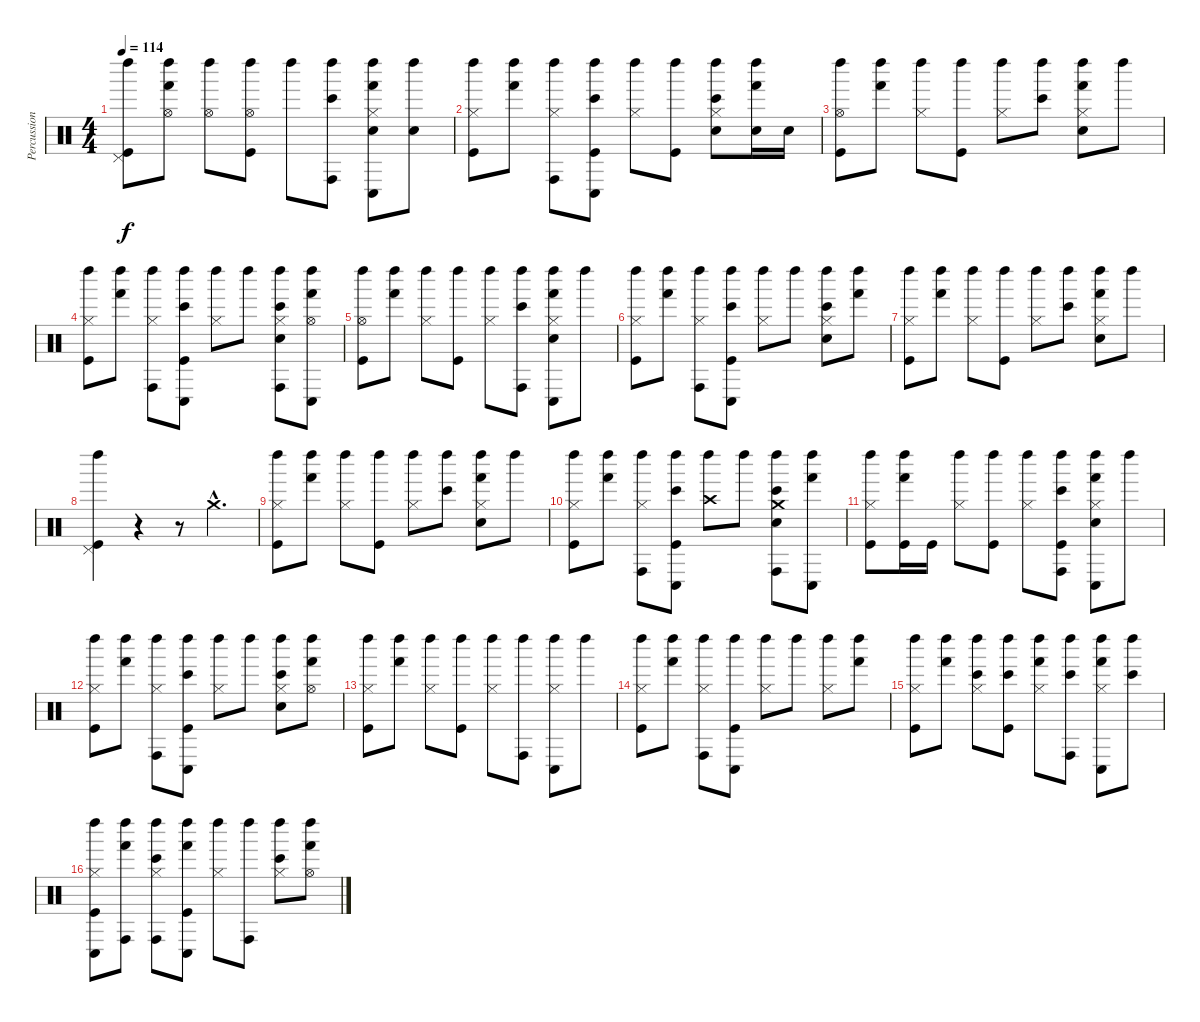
\track ("Percussion" "Percussion") {instrument percussion}
\staff {score}
\articulation defaults
\ts (4 4)
\tempo 114
\clef neutral
\ks c
("Left Maraca (hit)" "Pedal Hi-Hat (hit)" "Kick (hit)").8{dy f} ("Left Maraca (hit)" "Hand (hit)" "Hi-Hat (open)").8 ("Left Maraca (hit)" "Hi-Hat (open)").8 ("Left Maraca (hit)" "Hi-Hat (open)" "Kick (hit)").8 "Left Maraca (hit)".8 ("Left Maraca (hit)" "Conga high (hit)" "Bongo High (hit)").8 ("Left Maraca (hit)" "Conga low (hit)" "Hand (hit)" "Hi-Hat (closed)" "Snare (hit) 2").8 ("Left Maraca (hit)" "Snare (hit) 2").8 |
("Left Maraca (hit)" "Hi-Hat (closed)" "Kick (hit)").8 ("Left Maraca (hit)" "Hand (hit)").8 ("Left Maraca (hit)" "Conga high (hit)" "Hi-Hat (closed)").8 ("Left Maraca (hit)" "Conga low (hit)" "Bongo High (hit)" "Kick (hit)").8 ("Left Maraca (hit)" "Hi-Hat (closed)").8 ("Left Maraca (hit)" "Kick (hit)").8 ("Left Maraca (hit)" "Bongo High (hit)" "Hi-Hat (closed)" "Snare (hit) 2").8 ("Left Maraca (hit)" "Hand (hit)" "Snare (hit) 2").16 "Snare (hit) 2".16 |
("Left Maraca (hit)" "Hi-Hat (open)" "Kick (hit)").8 ("Left Maraca (hit)" "Hand (hit)").8 ("Left Maraca (hit)" "Hi-Hat (closed)").8 ("Left Maraca (hit)" "Kick (hit)").8 ("Left Maraca (hit)" "Hi-Hat (closed)").8 ("Left Maraca (hit)" "Bongo High (hit)").8 ("Left Maraca (hit)" "Hand (hit)" "Hi-Hat (closed)" "Snare (hit) 2").8 "Left Maraca (hit)".8 |
("Left Maraca (hit)" "Hi-Hat (closed)" "Kick (hit)").8 ("Left Maraca (hit)" "Hand (hit)").8 ("Left Maraca (hit)" "Conga high (hit)" "Hi-Hat (closed)").8 ("Left Maraca (hit)" "Conga low (hit)" "Bongo High (hit)" "Kick (hit)").8 ("Left Maraca (hit)" "Hi-Hat (closed)").8 "Left Maraca (hit)".8 ("Left Maraca (hit)" "Conga high (hit)" "Bongo High (hit)" "Hi-Hat (closed)" "Snare (hit) 2").8 ("Left Maraca (hit)" "Conga low (hit)" "Hand (hit)" "Hi-Hat (open)").8 |
("Left Maraca (hit)" "Hi-Hat (open)" "Kick (hit)").8 ("Left Maraca (hit)" "Hand (hit)").8 ("Left Maraca (hit)" "Hi-Hat (closed)").8 ("Left Maraca (hit)" "Kick (hit)").8 ("Left Maraca (hit)" "Hi-Hat (closed)").8 ("Left Maraca (hit)" "Conga high (hit)" "Bongo High (hit)").8 ("Left Maraca (hit)" "Conga low (hit)" "Hand (hit)" "Hi-Hat (closed)" "Snare (hit) 2").8 "Left Maraca (hit)".8 |
("Left Maraca (hit)" "Hi-Hat (closed)" "Kick (hit)").8 ("Left Maraca (hit)" "Hand (hit)").8 ("Left Maraca (hit)" "Conga high (hit)" "Hi-Hat (closed)").8 ("Left Maraca (hit)" "Conga low (hit)" "Bongo High (hit)" "Kick (hit)").8 ("Left Maraca (hit)" "Hi-Hat (closed)").8 "Left Maraca (hit)".8 ("Left Maraca (hit)" "Bongo High (hit)" "Hi-Hat (closed)" "Snare (hit) 2").8 ("Left Maraca (hit)" "Hand (hit)").8 |
("Left Maraca (hit)" "Hi-Hat (closed)" "Kick (hit)").8 ("Left Maraca (hit)" "Hand (hit)").8 ("Left Maraca (hit)" "Hi-Hat (closed)").8 ("Left Maraca (hit)" "Kick (hit)").8 ("Left Maraca (hit)" "Hi-Hat (closed)").8 ("Left Maraca (hit)" "Bongo High (hit)").8 ("Left Maraca (hit)" "Hand (hit)" "Hi-Hat (closed)" "Snare (hit) 2").8 "Left Maraca (hit)".8 |
("Left Maraca (hit)" "Pedal Hi-Hat (hit)" "Kick (hit)").4 r.4 r.8 "Crash medium (hit)"{hac}.4{d} |
("Left Maraca (hit)" "Hi-Hat (closed)" "Kick (hit)").8 ("Left Maraca (hit)" "Hand (hit)").8 ("Left Maraca (hit)" "Hi-Hat (closed)").8 ("Left Maraca (hit)" "Kick (hit)").8 ("Left Maraca (hit)" "Hi-Hat (closed)").8 ("Left Maraca (hit)" "Bongo High (hit)").8 ("Left Maraca (hit)" "Hand (hit)" "Hi-Hat (closed)" "Snare (hit) 2").8 "Left Maraca (hit)".8 |
("Left Maraca (hit)" "Hi-Hat (closed)" "Kick (hit)").8 ("Left Maraca (hit)" "Hand (hit)").8 ("Left Maraca (hit)" "Conga high (hit)" "Hi-Hat (closed)").8 ("Left Maraca (hit)" "Conga low (hit)" "Bongo High (hit)" "Kick (hit)").8 ("Left Maraca (hit)" "Crash high (hit)").8 "Left Maraca (hit)".8 ("Left Maraca (hit)" "Conga high (hit)" "Bongo High (hit)" "Crash medium (hit)" "Snare (hit) 2").8 ("Left Maraca (hit)" "Conga low (hit)" "Hand (hit)").8 |
("Left Maraca (hit)" "Hi-Hat (closed)" "Kick (hit)").8 ("Left Maraca (hit)" "Hand (hit)" "Kick (hit)").16 "Kick (hit)".16 ("Left Maraca (hit)" "Hi-Hat (closed)").8 ("Left Maraca (hit)" "Kick (hit)").8 ("Left Maraca (hit)" "Hi-Hat (closed)").8 ("Left Maraca (hit)" "Conga high (hit)" "Bongo High (hit)" "Kick (hit)").8 ("Left Maraca (hit)" "Conga low (hit)" "Hand (hit)" "Hi-Hat (closed)" "Snare (hit) 2").8 "Left Maraca (hit)".8 |
("Left Maraca (hit)" "Hi-Hat (closed)" "Kick (hit)").8 ("Left Maraca (hit)" "Hand (hit)").8 ("Left Maraca (hit)" "Conga high (hit)" "Hi-Hat (closed)").8 ("Left Maraca (hit)" "Conga low (hit)" "Bongo High (hit)" "Kick (hit)").8 ("Left Maraca (hit)" "Hi-Hat (closed)").8 "Left Maraca (hit)".8 ("Left Maraca (hit)" "Bongo High (hit)" "Hi-Hat (closed)" "Snare (hit) 2").8 ("Left Maraca (hit)" "Hand (hit)" "Hi-Hat (open)").8 |
("Left Maraca (hit)" "Hi-Hat (closed)" "Kick (hit)").8 ("Left Maraca (hit)" "Hand (hit)").8 ("Left Maraca (hit)" "Hi-Hat (closed)").8 ("Left Maraca (hit)" "Kick (hit)").8 ("Left Maraca (hit)" "Hi-Hat (closed)").8 ("Left Maraca (hit)" "Conga high (hit)").8 ("Left Maraca (hit)" "Conga low (hit)" "Hi-Hat (closed)").8 "Left Maraca (hit)".8 |
("Left Maraca (hit)" "Hi-Hat (closed)" "Kick (hit)").8 ("Left Maraca (hit)" "Hand (hit)").8 ("Left Maraca (hit)" "Conga high (hit)" "Hi-Hat (closed)").8 ("Left Maraca (hit)" "Conga low (hit)" "Kick (hit)").8 ("Left Maraca (hit)" "Hi-Hat (closed)").8 "Left Maraca (hit)".8 ("Left Maraca (hit)" "Hi-Hat (closed)").8 ("Left Maraca (hit)" "Hand (hit)").8 |
("Left Maraca (hit)" "Hi-Hat (closed)" "Kick (hit)").8 ("Left Maraca (hit)" "Hand (hit)").8 ("Left Maraca (hit)" "Bongo High (hit)" "Hi-Hat (closed)").8 ("Left Maraca (hit)" "Bongo High (hit)" "Kick (hit)").8 ("Left Maraca (hit)" "Hand (hit)" "Hi-Hat (closed)").8 ("Left Maraca (hit)" "Conga high (hit)" "Bongo High (hit)").8 ("Left Maraca (hit)" "Conga low (hit)" "Hand (hit)" "Hi-Hat (closed)").8 ("Left Maraca (hit)" "Bongo High (hit)").8 |
("Left Maraca (hit)" "Conga low (hit)" "Hi-Hat (closed)" "Kick (hit)").8 ("Left Maraca (hit)" "Conga high (hit)" "Hand (hit)").8 ("Left Maraca (hit)" "Conga high (hit)" "Bongo High (hit)" "Hi-Hat (closed)").8 ("Left Maraca (hit)" "Conga low (hit)" "Hand (hit)" "Kick (hit)").8 ("Left Maraca (hit)" "Hi-Hat (closed)").8 ("Left Maraca (hit)" "Conga high (hit)").8 ("Left Maraca (hit)" "Bongo High (hit)" "Hi-Hat (closed)").8 ("Left Maraca (hit)" "Hand (hit)" "Hi-Hat (open)").8
